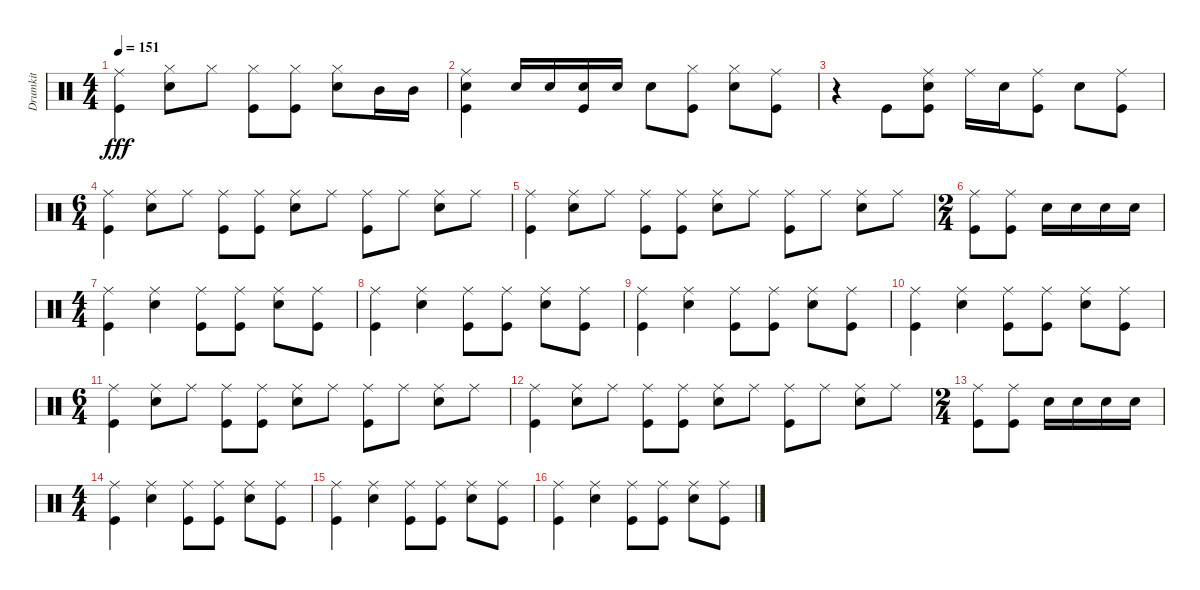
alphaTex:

\track ("Drumkit" "Drumkit") {instrument percussion}
\staff {score}
\articulation defaults
\ts (4 4)
\tempo 151
\clef neutral
\ks c
("Ride (middle)" "Kick (hit)").4{dy fff} ("Snare (hit) 2" "Hi-Hat (closed)").8 "Hi-Hat (closed)".8 ("Hi-Hat (closed)" "Kick (hit)").8 ("Hi-Hat (closed)" "Kick (hit)").8 ("Hi-Hat (closed)" "Snare (hit) 2").8 "Mid Tom (hit)".16 "Mid Tom (hit)".16 |
("Ride (middle)" "Snare (hit) 2" "Kick (hit)").4 "Snare (hit) 2".16 "Snare (hit) 2".16 ("Snare (hit) 2" "Kick (hit)").16 "Snare (hit) 2".16 "Snare (hit) 2".8 ("Hi-Hat (closed)" "Kick (hit)").8 ("Hi-Hat (closed)" "Snare (hit) 2").8 ("Ride (middle)" "Kick (hit)").8 |
r.4 "Kick (hit)".8 ("Kick (hit)" "Snare (hit) 2" "Ride (middle)").8 "Ride (middle)".16 "Snare (hit) 2".16 ("Kick (hit)" "Ride (middle)").8 "Snare (hit) 2".8 ("Kick (hit)" "Ride (middle)").8 |
\ts (6 4)
("Kick (hit)" "Ride (middle)").4 ("Snare (hit) 2" "Ride (middle)").8 "Ride (middle)".8 ("Kick (hit)" "Ride (middle)").8 ("Kick (hit)" "Ride (middle)").8 ("Snare (hit) 2" "Ride (middle)").8 "Ride (middle)".8 ("Kick (hit)" "Ride (middle)").8 "Ride (middle)".8 ("Snare (hit) 2" "Ride (middle)").8 "Ride (middle)".8 |
("Kick (hit)" "Ride (middle)").4 ("Snare (hit) 2" "Ride (middle)").8 "Ride (middle)".8 ("Kick (hit)" "Ride (middle)").8 ("Kick (hit)" "Ride (middle)").8 ("Snare (hit) 2" "Ride (middle)").8 "Ride (middle)".8 ("Kick (hit)" "Ride (middle)").8 "Ride (middle)".8 ("Snare (hit) 2" "Ride (middle)").8 "Ride (middle)".8 |
\ts (2 4)
("Kick (hit)" "Ride (middle)").8 ("Kick (hit)" "Ride (middle)").8 "Snare (hit) 2".16 "Snare (hit) 2".16 "Snare (hit) 2".16 "Snare (hit) 2".16 |
\ts (4 4)
("Ride (middle)" "Kick (hit)").4 ("Ride (middle)" "Snare (hit) 2").4 ("Kick (hit)" "Ride (middle)").8 ("Kick (hit)" "Ride (middle)").8 ("Snare (hit) 2" "Ride (middle)").8 ("Kick (hit)" "Ride (middle)").8 |
("Ride (middle)" "Kick (hit)").4 ("Ride (middle)" "Snare (hit) 2").4 ("Kick (hit)" "Ride (middle)").8 ("Kick (hit)" "Ride (middle)").8 ("Snare (hit) 2" "Ride (middle)").8 ("Kick (hit)" "Ride (middle)").8 |
("Ride (middle)" "Kick (hit)").4 ("Ride (middle)" "Snare (hit) 2").4 ("Kick (hit)" "Ride (middle)").8 ("Kick (hit)" "Ride (middle)").8 ("Snare (hit) 2" "Ride (middle)").8 ("Kick (hit)" "Ride (middle)").8 |
("Ride (middle)" "Kick (hit)").4 ("Ride (middle)" "Snare (hit) 2").4 ("Kick (hit)" "Ride (middle)").8 ("Kick (hit)" "Ride (middle)").8 ("Snare (hit) 2" "Ride (middle)").8 ("Kick (hit)" "Ride (middle)").8 |
\ts (6 4)
("Kick (hit)" "Ride (middle)").4 ("Snare (hit) 2" "Ride (middle)").8 "Ride (middle)".8 ("Kick (hit)" "Ride (middle)").8 ("Kick (hit)" "Ride (middle)").8 ("Snare (hit) 2" "Ride (middle)").8 "Ride (middle)".8 ("Kick (hit)" "Ride (middle)").8 "Ride (middle)".8 ("Snare (hit) 2" "Ride (middle)").8 "Ride (middle)".8 |
("Kick (hit)" "Ride (middle)").4 ("Snare (hit) 2" "Ride (middle)").8 "Ride (middle)".8 ("Kick (hit)" "Ride (middle)").8 ("Kick (hit)" "Ride (middle)").8 ("Snare (hit) 2" "Ride (middle)").8 "Ride (middle)".8 ("Kick (hit)" "Ride (middle)").8 "Ride (middle)".8 ("Snare (hit) 2" "Ride (middle)").8 "Ride (middle)".8 |
\ts (2 4)
("Kick (hit)" "Ride (middle)").8 ("Kick (hit)" "Ride (middle)").8 "Snare (hit) 2".16 "Snare (hit) 2".16 "Snare (hit) 2".16 "Snare (hit) 2".16 |
\ts (4 4)
("Ride (middle)" "Kick (hit)").4 ("Ride (middle)" "Snare (hit) 2").4 ("Kick (hit)" "Ride (middle)").8 ("Kick (hit)" "Ride (middle)").8 ("Snare (hit) 2" "Ride (middle)").8 ("Kick (hit)" "Ride (middle)").8 |
("Ride (middle)" "Kick (hit)").4 ("Ride (middle)" "Snare (hit) 2").4 ("Kick (hit)" "Ride (middle)").8 ("Kick (hit)" "Ride (middle)").8 ("Snare (hit) 2" "Ride (middle)").8 ("Kick (hit)" "Ride (middle)").8 |
("Ride (middle)" "Kick (hit)").4 ("Ride (middle)" "Snare (hit) 2").4 ("Kick (hit)" "Ride (middle)").8 ("Kick (hit)" "Ride (middle)").8 ("Snare (hit) 2" "Ride (middle)").8 ("Kick (hit)" "Ride (middle)").8
